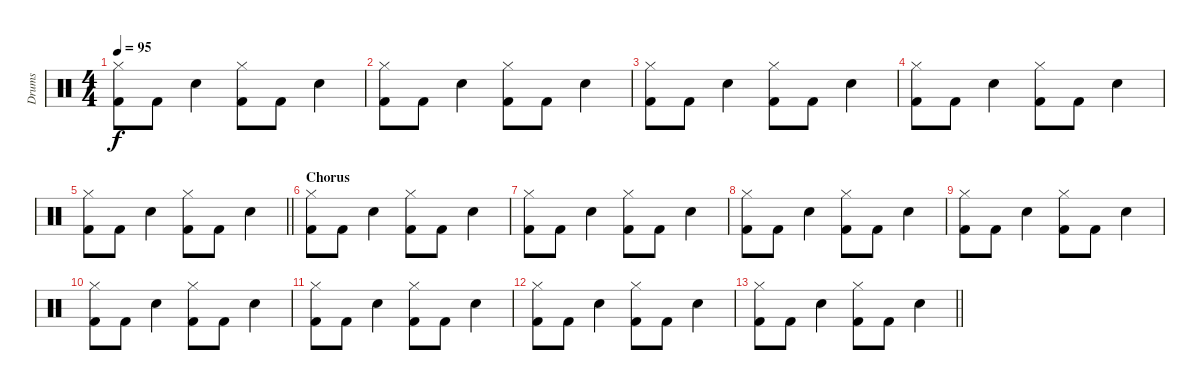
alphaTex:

\track ("Drums" "Drums") {instrument percussion}
\staff {score}
\articulation defaults
\ts (4 4)
\tempo 95
\clef neutral
\ks c
("Hi-Hat (closed)" "Kick (hit) 2").8{dy f} "Kick (hit) 2".8 "Electric Snare (hit)".4 ("Hi-Hat (closed)" "Kick (hit) 2").8 "Kick (hit) 2".8 "Electric Snare (hit)".4 |
("Hi-Hat (closed)" "Kick (hit) 2").8 "Kick (hit) 2".8 "Electric Snare (hit)".4 ("Hi-Hat (closed)" "Kick (hit) 2").8 "Kick (hit) 2".8 "Electric Snare (hit)".4 |
("Hi-Hat (closed)" "Kick (hit) 2").8 "Kick (hit) 2".8 "Electric Snare (hit)".4 ("Hi-Hat (closed)" "Kick (hit) 2").8 "Kick (hit) 2".8 "Electric Snare (hit)".4 |
("Hi-Hat (closed)" "Kick (hit) 2").8 "Kick (hit) 2".8 "Electric Snare (hit)".4 ("Hi-Hat (closed)" "Kick (hit) 2").8 "Kick (hit) 2".8 "Electric Snare (hit)".4 |
\barLineRight lightlight
("Hi-Hat (closed)" "Kick (hit) 2").8 "Kick (hit) 2".8 "Electric Snare (hit)".4 ("Hi-Hat (closed)" "Kick (hit) 2").8 "Kick (hit) 2".8 "Electric Snare (hit)".4 |
\section ("" "Chorus")
("Hi-Hat (closed)" "Kick (hit) 2").8 "Kick (hit) 2".8 "Electric Snare (hit)".4 ("Hi-Hat (closed)" "Kick (hit) 2").8 "Kick (hit) 2".8 "Electric Snare (hit)".4 |
("Hi-Hat (closed)" "Kick (hit) 2").8 "Kick (hit) 2".8 "Electric Snare (hit)".4 ("Hi-Hat (closed)" "Kick (hit) 2").8 "Kick (hit) 2".8 "Electric Snare (hit)".4 |
("Hi-Hat (closed)" "Kick (hit) 2").8 "Kick (hit) 2".8 "Electric Snare (hit)".4 ("Hi-Hat (closed)" "Kick (hit) 2").8 "Kick (hit) 2".8 "Electric Snare (hit)".4 |
("Hi-Hat (closed)" "Kick (hit) 2").8 "Kick (hit) 2".8 "Electric Snare (hit)".4 ("Hi-Hat (closed)" "Kick (hit) 2").8 "Kick (hit) 2".8 "Electric Snare (hit)".4 |
("Hi-Hat (closed)" "Kick (hit) 2").8 "Kick (hit) 2".8 "Electric Snare (hit)".4 ("Hi-Hat (closed)" "Kick (hit) 2").8 "Kick (hit) 2".8 "Electric Snare (hit)".4 |
("Hi-Hat (closed)" "Kick (hit) 2").8 "Kick (hit) 2".8 "Electric Snare (hit)".4 ("Hi-Hat (closed)" "Kick (hit) 2").8 "Kick (hit) 2".8 "Electric Snare (hit)".4 |
("Hi-Hat (closed)" "Kick (hit) 2").8 "Kick (hit) 2".8 "Electric Snare (hit)".4 ("Hi-Hat (closed)" "Kick (hit) 2").8 "Kick (hit) 2".8 "Electric Snare (hit)".4 |
\barLineRight lightlight
("Hi-Hat (closed)" "Kick (hit) 2").8 "Kick (hit) 2".8 "Electric Snare (hit)".4 ("Hi-Hat (closed)" "Kick (hit) 2").8 "Kick (hit) 2".8 "Electric Snare (hit)".4
